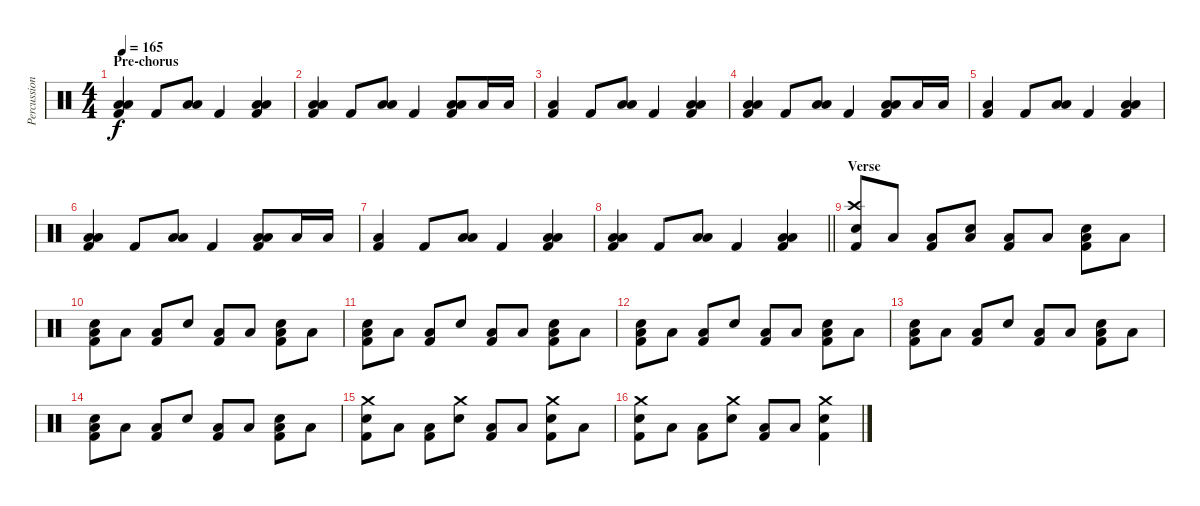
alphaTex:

\track ("Percussion" "Percussion") {instrument percussion}
\staff {score}
\articulation defaults
\ts (4 4)
\section ("" "Pre-chorus")
\tempo 165
\clef neutral
\ks c
("Low Floor Tom (hit)" "Low Floor Tom (hit)" "Kick (hit) 2").4{dy f} "Kick (hit) 2".8 ("Low Tom (hit)" "Low Floor Tom (hit)").8 "Kick (hit) 2".4 ("Low Floor Tom (hit)" "Low Floor Tom (hit)" "Kick (hit) 2").4 |
("Low Floor Tom (hit)" "Low Floor Tom (hit)" "Kick (hit) 2").4 "Kick (hit) 2".8 ("Low Tom (hit)" "Low Floor Tom (hit)").8 "Kick (hit) 2".4 ("Low Floor Tom (hit)" "Low Floor Tom (hit)" "Kick (hit) 2").8 "Low Floor Tom (hit)".16 "Low Floor Tom (hit)".16 |
("Low Floor Tom (hit)" "Kick (hit) 2").4 "Kick (hit) 2".8 ("Low Tom (hit)" "Low Floor Tom (hit)").8 "Kick (hit) 2".4 ("Low Floor Tom (hit)" "Low Floor Tom (hit)" "Kick (hit) 2").4 |
("Low Floor Tom (hit)" "Low Floor Tom (hit)" "Kick (hit) 2").4 "Kick (hit) 2".8 ("Low Tom (hit)" "Low Floor Tom (hit)").8 "Kick (hit) 2".4 ("Low Floor Tom (hit)" "Low Floor Tom (hit)" "Kick (hit) 2").8 "Low Floor Tom (hit)".16 "Low Floor Tom (hit)".16 |
("Low Floor Tom (hit)" "Kick (hit) 2").4 "Kick (hit) 2".8 ("Low Tom (hit)" "Low Floor Tom (hit)").8 "Kick (hit) 2".4 ("Low Floor Tom (hit)" "Low Floor Tom (hit)" "Kick (hit) 2").4 |
("Low Floor Tom (hit)" "Low Floor Tom (hit)" "Kick (hit) 2").4 "Kick (hit) 2".8 ("Low Tom (hit)" "Low Floor Tom (hit)").8 "Kick (hit) 2".4 ("Low Floor Tom (hit)" "Low Floor Tom (hit)" "Kick (hit) 2").8 "Low Floor Tom (hit)".16 "Low Floor Tom (hit)".16 |
("Low Floor Tom (hit)" "Kick (hit) 2").4 "Kick (hit) 2".8 ("Low Tom (hit)" "Low Floor Tom (hit)").8 "Kick (hit) 2".4 ("Low Floor Tom (hit)" "Low Floor Tom (hit)" "Kick (hit) 2").4 |
\barLineRight lightlight
("Low Floor Tom (hit)" "Low Floor Tom (hit)" "Kick (hit) 2").4 "Kick (hit) 2".8 ("Low Tom (hit)" "Low Floor Tom (hit)").8 "Kick (hit) 2".4 ("Low Floor Tom (hit)" "Low Floor Tom (hit)" "Kick (hit) 2").4 |
\section ("" "Verse")
("Crash high (hit)" "Electric Snare (hit)" "Kick (hit) 2").8 "Low Floor Tom (hit)".8 ("Low Floor Tom (hit)" "Kick (hit) 2").8 ("Electric Snare (hit)" "Low Floor Tom (hit)").8 ("Low Floor Tom (hit)" "Kick (hit) 2").8 "Low Floor Tom (hit)".8 ("Electric Snare (hit)" "Low Floor Tom (hit)" "Kick (hit) 2").8 "Low Floor Tom (hit)".8 |
("Electric Snare (hit)" "Low Floor Tom (hit)" "Kick (hit) 2").8 "Low Floor Tom (hit)".8 ("Low Floor Tom (hit)" "Kick (hit) 2").8 "Electric Snare (hit)".8 ("Low Floor Tom (hit)" "Kick (hit) 2").8 "Low Floor Tom (hit)".8 ("Electric Snare (hit)" "Low Floor Tom (hit)" "Kick (hit) 2").8 "Low Floor Tom (hit)".8 |
("Electric Snare (hit)" "Low Floor Tom (hit)" "Kick (hit) 2").8 "Low Floor Tom (hit)".8 ("Low Floor Tom (hit)" "Kick (hit) 2").8 "Electric Snare (hit)".8 ("Low Floor Tom (hit)" "Kick (hit) 2").8 "Low Floor Tom (hit)".8 ("Electric Snare (hit)" "Low Floor Tom (hit)" "Kick (hit) 2").8 "Low Floor Tom (hit)".8 |
("Electric Snare (hit)" "Low Floor Tom (hit)" "Kick (hit) 2").8 "Low Floor Tom (hit)".8 ("Low Floor Tom (hit)" "Kick (hit) 2").8 "Electric Snare (hit)".8 ("Low Floor Tom (hit)" "Kick (hit) 2").8 "Low Floor Tom (hit)".8 ("Electric Snare (hit)" "Low Floor Tom (hit)" "Kick (hit) 2").8 "Low Floor Tom (hit)".8 |
("Electric Snare (hit)" "Low Floor Tom (hit)" "Kick (hit) 2").8 "Low Floor Tom (hit)".8 ("Low Floor Tom (hit)" "Kick (hit) 2").8 "Electric Snare (hit)".8 ("Low Floor Tom (hit)" "Kick (hit) 2").8 "Low Floor Tom (hit)".8 ("Electric Snare (hit)" "Low Floor Tom (hit)" "Kick (hit) 2").8 "Low Floor Tom (hit)".8 |
("Electric Snare (hit)" "Low Floor Tom (hit)" "Kick (hit) 2").8 "Low Floor Tom (hit)".8 ("Low Floor Tom (hit)" "Kick (hit) 2").8 "Electric Snare (hit)".8 ("Low Floor Tom (hit)" "Kick (hit) 2").8 "Low Floor Tom (hit)".8 ("Electric Snare (hit)" "Low Floor Tom (hit)" "Kick (hit) 2").8 "Low Floor Tom (hit)".8 |
("Crash medium (hit)" "Electric Snare (hit)" "Kick (hit) 2").8 "Low Tom (hit)".8 ("Low Tom (hit)" "Kick (hit) 2").8 ("Crash medium (hit)" "Electric Snare (hit)").8 ("Low Tom (hit)" "Kick (hit) 2").8 "Low Tom (hit)".8 ("Crash medium (hit)" "Electric Snare (hit)" "Kick (hit) 2").8 "Low Tom (hit)".8 |
("Crash medium (hit)" "Electric Snare (hit)" "Kick (hit) 2").8 "Low Tom (hit)".8 ("Low Tom (hit)" "Kick (hit) 2").8 ("Crash medium (hit)" "Electric Snare (hit)").8 ("Low Tom (hit)" "Kick (hit) 2").8 "Low Tom (hit)".8 ("Crash medium (hit)" "Electric Snare (hit)" "Kick (hit) 2").4
